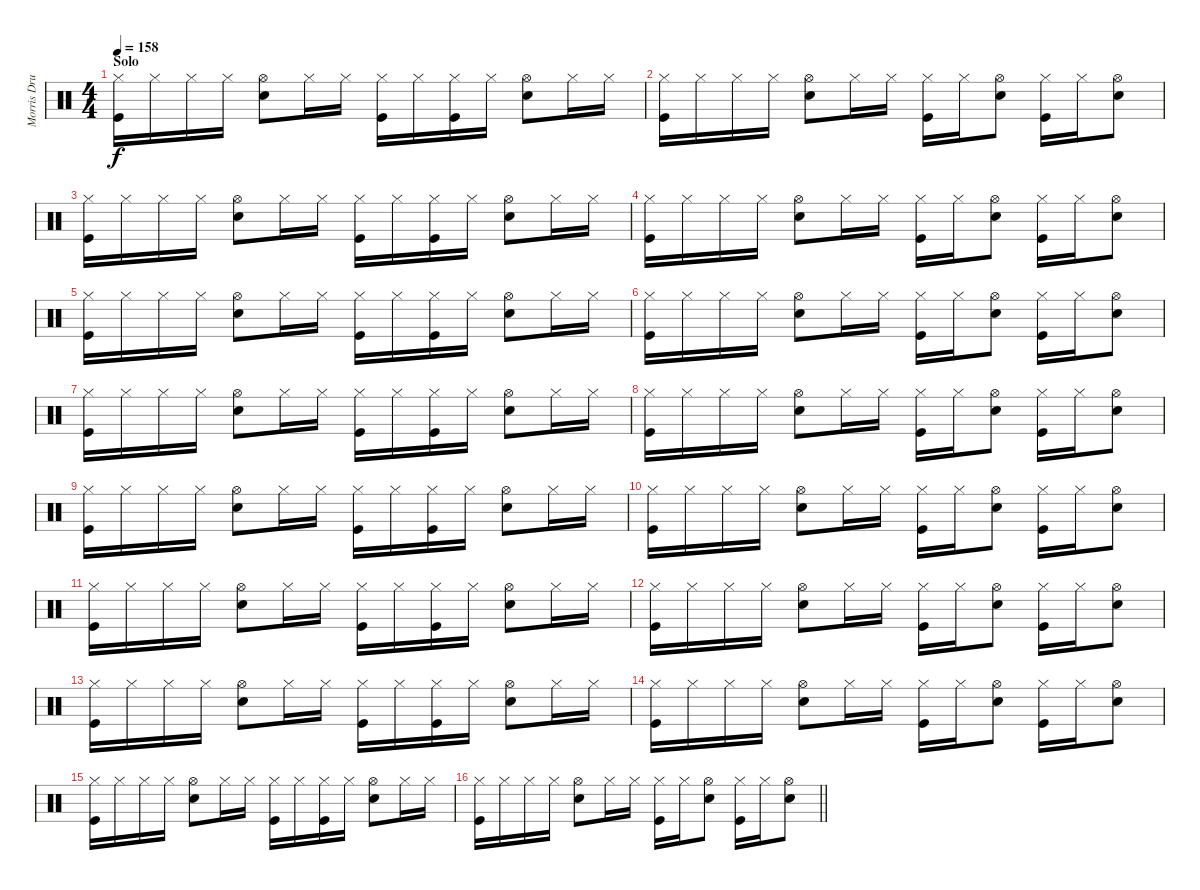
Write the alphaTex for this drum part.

\track ("Morris Drums" "Morris Dru") {instrument percussion}
\staff {score}
\articulation defaults
\ts (4 4)
\section ("" "Solo")
\tempo 158
\clef neutral
\ks c
("Hi-Hat (closed)" "Kick (hit)").16{dy f} "Hi-Hat (closed)".16 "Hi-Hat (closed)".16 "Hi-Hat (closed)".16 ("Hi-Hat (open)" "Snare (hit) 2").8 "Hi-Hat (closed)".16 "Hi-Hat (closed)".16 ("Hi-Hat (closed)" "Kick (hit)").16 "Hi-Hat (closed)".16 ("Hi-Hat (closed)" "Kick (hit)").16 "Hi-Hat (closed)".16 ("Hi-Hat (open)" "Snare (hit) 2").8 "Hi-Hat (closed)".16 "Hi-Hat (closed)".16 |
("Hi-Hat (closed)" "Kick (hit)").16 "Hi-Hat (closed)".16 "Hi-Hat (closed)".16 "Hi-Hat (closed)".16 ("Hi-Hat (open)" "Snare (hit) 2").8 "Hi-Hat (closed)".16 "Hi-Hat (closed)".16 ("Hi-Hat (closed)" "Kick (hit)").16 "Hi-Hat (closed)".16 ("Hi-Hat (open)" "Snare (hit) 2").8 ("Hi-Hat (closed)" "Kick (hit)").16 "Hi-Hat (closed)".16 ("Hi-Hat (open)" "Snare (hit) 2").8 |
("Hi-Hat (closed)" "Kick (hit)").16 "Hi-Hat (closed)".16 "Hi-Hat (closed)".16 "Hi-Hat (closed)".16 ("Hi-Hat (open)" "Snare (hit) 2").8 "Hi-Hat (closed)".16 "Hi-Hat (closed)".16 ("Hi-Hat (closed)" "Kick (hit)").16 "Hi-Hat (closed)".16 ("Hi-Hat (closed)" "Kick (hit)").16 "Hi-Hat (closed)".16 ("Hi-Hat (open)" "Snare (hit) 2").8 "Hi-Hat (closed)".16 "Hi-Hat (closed)".16 |
("Hi-Hat (closed)" "Kick (hit)").16 "Hi-Hat (closed)".16 "Hi-Hat (closed)".16 "Hi-Hat (closed)".16 ("Hi-Hat (open)" "Snare (hit) 2").8 "Hi-Hat (closed)".16 "Hi-Hat (closed)".16 ("Hi-Hat (closed)" "Kick (hit)").16 "Hi-Hat (closed)".16 ("Hi-Hat (open)" "Snare (hit) 2").8 ("Hi-Hat (closed)" "Kick (hit)").16 "Hi-Hat (closed)".16 ("Hi-Hat (open)" "Snare (hit) 2").8 |
("Hi-Hat (closed)" "Kick (hit)").16 "Hi-Hat (closed)".16 "Hi-Hat (closed)".16 "Hi-Hat (closed)".16 ("Hi-Hat (open)" "Snare (hit) 2").8 "Hi-Hat (closed)".16 "Hi-Hat (closed)".16 ("Hi-Hat (closed)" "Kick (hit)").16 "Hi-Hat (closed)".16 ("Hi-Hat (closed)" "Kick (hit)").16 "Hi-Hat (closed)".16 ("Hi-Hat (open)" "Snare (hit) 2").8 "Hi-Hat (closed)".16 "Hi-Hat (closed)".16 |
("Hi-Hat (closed)" "Kick (hit)").16 "Hi-Hat (closed)".16 "Hi-Hat (closed)".16 "Hi-Hat (closed)".16 ("Hi-Hat (open)" "Snare (hit) 2").8 "Hi-Hat (closed)".16 "Hi-Hat (closed)".16 ("Hi-Hat (closed)" "Kick (hit)").16 "Hi-Hat (closed)".16 ("Hi-Hat (open)" "Snare (hit) 2").8 ("Hi-Hat (closed)" "Kick (hit)").16 "Hi-Hat (closed)".16 ("Hi-Hat (open)" "Snare (hit) 2").8 |
("Hi-Hat (closed)" "Kick (hit)").16 "Hi-Hat (closed)".16 "Hi-Hat (closed)".16 "Hi-Hat (closed)".16 ("Hi-Hat (open)" "Snare (hit) 2").8 "Hi-Hat (closed)".16 "Hi-Hat (closed)".16 ("Hi-Hat (closed)" "Kick (hit)").16 "Hi-Hat (closed)".16 ("Hi-Hat (closed)" "Kick (hit)").16 "Hi-Hat (closed)".16 ("Hi-Hat (open)" "Snare (hit) 2").8 "Hi-Hat (closed)".16 "Hi-Hat (closed)".16 |
("Hi-Hat (closed)" "Kick (hit)").16 "Hi-Hat (closed)".16 "Hi-Hat (closed)".16 "Hi-Hat (closed)".16 ("Hi-Hat (open)" "Snare (hit) 2").8 "Hi-Hat (closed)".16 "Hi-Hat (closed)".16 ("Hi-Hat (closed)" "Kick (hit)").16 "Hi-Hat (closed)".16 ("Hi-Hat (open)" "Snare (hit) 2").8 ("Hi-Hat (closed)" "Kick (hit)").16 "Hi-Hat (closed)".16 ("Hi-Hat (open)" "Snare (hit) 2").8 |
("Hi-Hat (closed)" "Kick (hit)").16 "Hi-Hat (closed)".16 "Hi-Hat (closed)".16 "Hi-Hat (closed)".16 ("Hi-Hat (open)" "Snare (hit) 2").8 "Hi-Hat (closed)".16 "Hi-Hat (closed)".16 ("Hi-Hat (closed)" "Kick (hit)").16 "Hi-Hat (closed)".16 ("Hi-Hat (closed)" "Kick (hit)").16 "Hi-Hat (closed)".16 ("Hi-Hat (open)" "Snare (hit) 2").8 "Hi-Hat (closed)".16 "Hi-Hat (closed)".16 |
("Hi-Hat (closed)" "Kick (hit)").16 "Hi-Hat (closed)".16 "Hi-Hat (closed)".16 "Hi-Hat (closed)".16 ("Hi-Hat (open)" "Snare (hit) 2").8 "Hi-Hat (closed)".16 "Hi-Hat (closed)".16 ("Hi-Hat (closed)" "Kick (hit)").16 "Hi-Hat (closed)".16 ("Hi-Hat (open)" "Snare (hit) 2").8 ("Hi-Hat (closed)" "Kick (hit)").16 "Hi-Hat (closed)".16 ("Hi-Hat (open)" "Snare (hit) 2").8 |
("Hi-Hat (closed)" "Kick (hit)").16 "Hi-Hat (closed)".16 "Hi-Hat (closed)".16 "Hi-Hat (closed)".16 ("Hi-Hat (open)" "Snare (hit) 2").8 "Hi-Hat (closed)".16 "Hi-Hat (closed)".16 ("Hi-Hat (closed)" "Kick (hit)").16 "Hi-Hat (closed)".16 ("Hi-Hat (closed)" "Kick (hit)").16 "Hi-Hat (closed)".16 ("Hi-Hat (open)" "Snare (hit) 2").8 "Hi-Hat (closed)".16 "Hi-Hat (closed)".16 |
("Hi-Hat (closed)" "Kick (hit)").16 "Hi-Hat (closed)".16 "Hi-Hat (closed)".16 "Hi-Hat (closed)".16 ("Hi-Hat (open)" "Snare (hit) 2").8 "Hi-Hat (closed)".16 "Hi-Hat (closed)".16 ("Hi-Hat (closed)" "Kick (hit)").16 "Hi-Hat (closed)".16 ("Hi-Hat (open)" "Snare (hit) 2").8 ("Hi-Hat (closed)" "Kick (hit)").16 "Hi-Hat (closed)".16 ("Hi-Hat (open)" "Snare (hit) 2").8 |
("Hi-Hat (closed)" "Kick (hit)").16 "Hi-Hat (closed)".16 "Hi-Hat (closed)".16 "Hi-Hat (closed)".16 ("Hi-Hat (open)" "Snare (hit) 2").8 "Hi-Hat (closed)".16 "Hi-Hat (closed)".16 ("Hi-Hat (closed)" "Kick (hit)").16 "Hi-Hat (closed)".16 ("Hi-Hat (closed)" "Kick (hit)").16 "Hi-Hat (closed)".16 ("Hi-Hat (open)" "Snare (hit) 2").8 "Hi-Hat (closed)".16 "Hi-Hat (closed)".16 |
("Hi-Hat (closed)" "Kick (hit)").16 "Hi-Hat (closed)".16 "Hi-Hat (closed)".16 "Hi-Hat (closed)".16 ("Hi-Hat (open)" "Snare (hit) 2").8 "Hi-Hat (closed)".16 "Hi-Hat (closed)".16 ("Hi-Hat (closed)" "Kick (hit)").16 "Hi-Hat (closed)".16 ("Hi-Hat (open)" "Snare (hit) 2").8 ("Hi-Hat (closed)" "Kick (hit)").16 "Hi-Hat (closed)".16 ("Hi-Hat (open)" "Snare (hit) 2").8 |
("Hi-Hat (closed)" "Kick (hit)").16 "Hi-Hat (closed)".16 "Hi-Hat (closed)".16 "Hi-Hat (closed)".16 ("Hi-Hat (open)" "Snare (hit) 2").8 "Hi-Hat (closed)".16 "Hi-Hat (closed)".16 ("Hi-Hat (closed)" "Kick (hit)").16 "Hi-Hat (closed)".16 ("Hi-Hat (closed)" "Kick (hit)").16 "Hi-Hat (closed)".16 ("Hi-Hat (open)" "Snare (hit) 2").8 "Hi-Hat (closed)".16 "Hi-Hat (closed)".16 |
\barLineRight lightlight
("Hi-Hat (closed)" "Kick (hit)").16 "Hi-Hat (closed)".16 "Hi-Hat (closed)".16 "Hi-Hat (closed)".16 ("Hi-Hat (open)" "Snare (hit) 2").8 "Hi-Hat (closed)".16 "Hi-Hat (closed)".16 ("Hi-Hat (closed)" "Kick (hit)").16 "Hi-Hat (closed)".16 ("Hi-Hat (open)" "Snare (hit) 2").8 ("Hi-Hat (closed)" "Kick (hit)").16 "Hi-Hat (closed)".16 ("Hi-Hat (open)" "Snare (hit) 2").8
